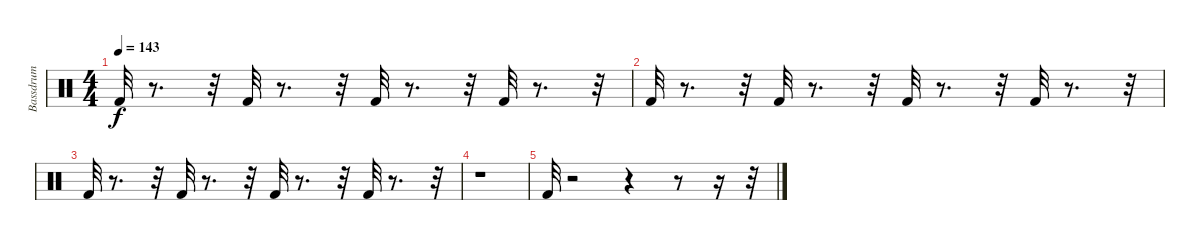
\track ("Bassdrum " "Bassdrum ") {instrument percussion}
\staff {score}
\articulation defaults
\ts (4 4)
\tempo 143
\clef neutral
\ks c "Kick (hit) 2".32{dy f}
r.8{d} r.32 "Kick (hit) 2".32 r.8{d} r.32 "Kick (hit) 2".32 r.8{d} r.32 "Kick (hit) 2".32 r.8{d} r.32 |
"Kick (hit) 2".32 r.8{d} r.32 "Kick (hit) 2".32 r.8{d} r.32 "Kick (hit) 2".32 r.8{d} r.32 "Kick (hit) 2".32 r.8{d} r.32 |
"Kick (hit) 2".32 r.8{d} r.32 "Kick (hit) 2".32 r.8{d} r.32 "Kick (hit) 2".32 r.8{d} r.32 "Kick (hit) 2".32 r.8{d} r.32 |
r.1 |
"Kick (hit) 2".32 r.2 r.4 r.8 r.16 r.32
